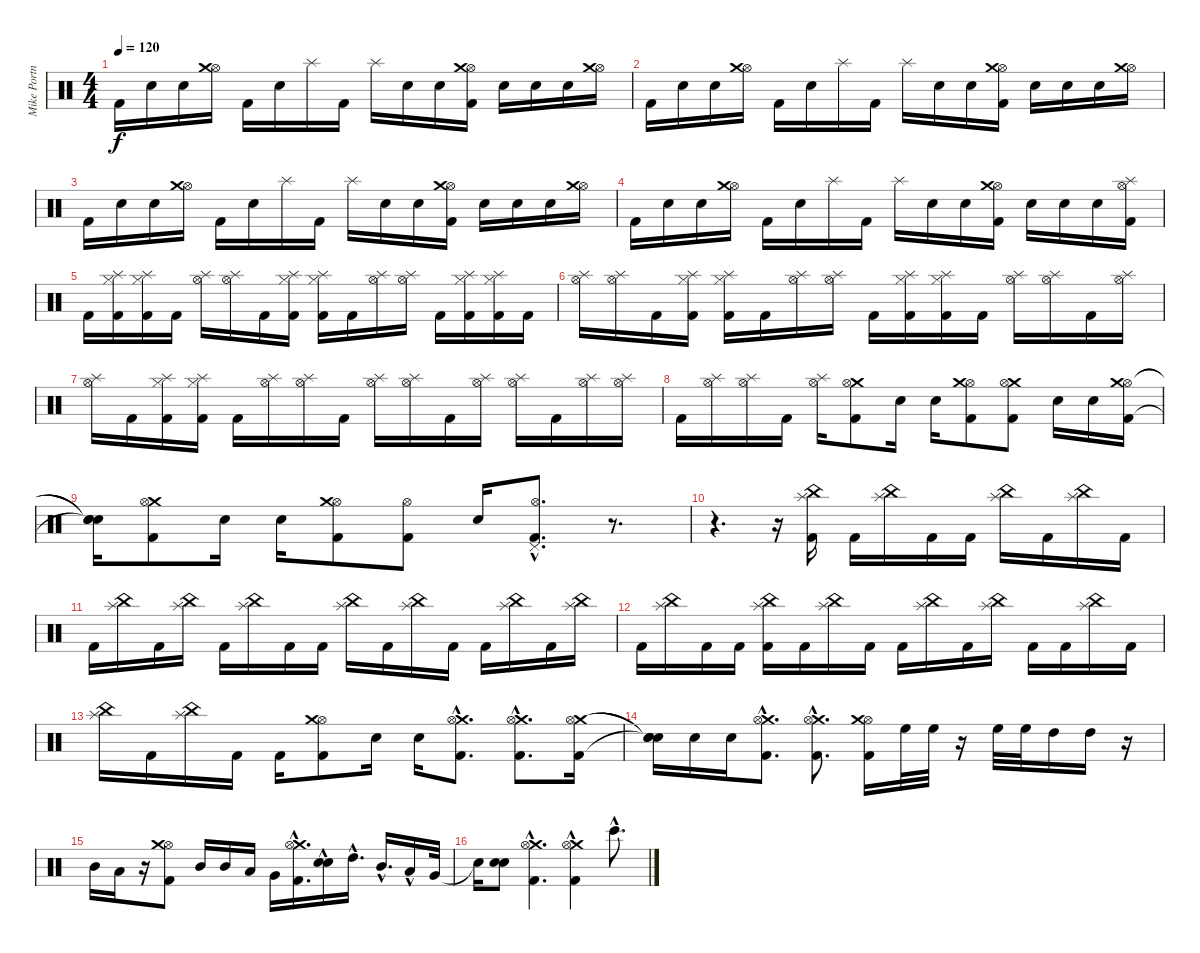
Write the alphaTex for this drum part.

\track ("Mike Portnoy - Batterie" "Mike Portn") {instrument percussion}
\staff {score}
\articulation defaults
\ts (4 4)
\tempo 120
\clef neutral
\ks c "Kick (hit) 2".16{dy f} "Electric Snare (hit)".16 "Electric Snare (hit)".16
("Hi-Hat (open)" "Crash medium (hit)").16 "Kick (hit) 2".16 "Electric Snare (hit)".16 "Splash (hit)".16 "Kick (hit) 2".16 "Splash (hit)".16 "Electric Snare (hit)".16 "Electric Snare (hit)".16 ("Kick (hit) 2" "Hi-Hat (open)" "Crash medium (hit)").16 "Electric Snare (hit)".16 "Electric Snare (hit)".16 "Electric Snare (hit)".16 ("Hi-Hat (open)" "Crash medium (hit)").16 |
"Kick (hit) 2".16 "Electric Snare (hit)".16 "Electric Snare (hit)".16 ("Hi-Hat (open)" "Crash medium (hit)").16 "Kick (hit) 2".16 "Electric Snare (hit)".16 "Splash (hit)".16 "Kick (hit) 2".16 "Splash (hit)".16 "Electric Snare (hit)".16 "Electric Snare (hit)".16 ("Kick (hit) 2" "Hi-Hat (open)" "Crash medium (hit)").16 "Electric Snare (hit)".16 "Electric Snare (hit)".16 "Electric Snare (hit)".16 ("Hi-Hat (open)" "Crash medium (hit)").16 |
"Kick (hit) 2".16 "Electric Snare (hit)".16 "Electric Snare (hit)".16 ("Hi-Hat (open)" "Crash medium (hit)").16 "Kick (hit) 2".16 "Electric Snare (hit)".16 "Splash (hit)".16 "Kick (hit) 2".16 "Splash (hit)".16 "Electric Snare (hit)".16 "Electric Snare (hit)".16 ("Kick (hit) 2" "Hi-Hat (open)" "Crash medium (hit)").16 "Electric Snare (hit)".16 "Electric Snare (hit)".16 "Electric Snare (hit)".16 ("Hi-Hat (open)" "Crash medium (hit)").16 |
"Kick (hit) 2".16 "Electric Snare (hit)".16 "Electric Snare (hit)".16 ("Hi-Hat (open)" "Crash medium (hit)").16 "Kick (hit) 2".16 "Electric Snare (hit)".16 "Splash (hit)".16 "Kick (hit) 2".16 "Splash (hit)".16 "Electric Snare (hit)".16 "Electric Snare (hit)".16 ("Kick (hit) 2" "Hi-Hat (open)" "Crash medium (hit)").16 "Electric Snare (hit)".16 "Electric Snare (hit)".16 "Electric Snare (hit)".16 ("Kick (hit) 2" "Hi-Hat (open)" "Splash (hit)").16 |
"Kick (hit) 2".16 ("Kick (hit) 2" "Hi-Hat (closed)" "Splash (hit)").16 ("Kick (hit) 2" "Hi-Hat (closed)" "Splash (hit)").16 "Kick (hit) 2".16 ("Hi-Hat (open)" "Splash (hit)").16 ("Hi-Hat (open)" "Splash (hit)").16 "Kick (hit) 2".16 ("Kick (hit) 2" "Hi-Hat (closed)" "Splash (hit)").16 ("Kick (hit) 2" "Hi-Hat (closed)" "Splash (hit)").16 "Kick (hit) 2".16 ("Hi-Hat (open)" "Splash (hit)").16 ("Hi-Hat (open)" "Splash (hit)").16 "Kick (hit) 2".16 ("Kick (hit) 2" "Hi-Hat (closed)" "Splash (hit)").16 ("Kick (hit) 2" "Hi-Hat (closed)" "Splash (hit)").16 "Kick (hit) 2".16 |
("Hi-Hat (open)" "Splash (hit)").16 ("Hi-Hat (open)" "Splash (hit)").16 "Kick (hit) 2".16 ("Kick (hit) 2" "Hi-Hat (closed)" "Splash (hit)").16 ("Kick (hit) 2" "Hi-Hat (closed)" "Splash (hit)").16 "Kick (hit) 2".16 ("Hi-Hat (open)" "Splash (hit)").16 ("Hi-Hat (open)" "Splash (hit)").16 "Kick (hit) 2".16 ("Kick (hit) 2" "Hi-Hat (closed)" "Splash (hit)").16 ("Kick (hit) 2" "Hi-Hat (closed)" "Splash (hit)").16 "Kick (hit) 2".16 ("Hi-Hat (open)" "Splash (hit)").16 ("Hi-Hat (open)" "Splash (hit)").16 "Kick (hit) 2".16 ("Hi-Hat (open)" "Splash (hit)").16 |
("Hi-Hat (open)" "Splash (hit)").16 "Kick (hit) 2".16 ("Kick (hit) 2" "Hi-Hat (closed)" "Splash (hit)").16 ("Kick (hit) 2" "Hi-Hat (closed)" "Splash (hit)").16 "Kick (hit) 2".16 ("Hi-Hat (open)" "Splash (hit)").16 ("Hi-Hat (open)" "Splash (hit)").16 "Kick (hit) 2".16 ("Hi-Hat (open)" "Splash (hit)").16 ("Hi-Hat (open)" "Splash (hit)").16 "Kick (hit) 2".16 ("Hi-Hat (open)" "Splash (hit)").16 ("Hi-Hat (open)" "Splash (hit)").16 "Kick (hit) 2".16 ("Hi-Hat (open)" "Splash (hit)").16 ("Hi-Hat (open)" "Splash (hit)").16 |
"Kick (hit) 2".16 ("Hi-Hat (open)" "Splash (hit)").16 ("Hi-Hat (open)" "Splash (hit)").16 "Kick (hit) 2".16 ("Hi-Hat (open)" "Splash (hit)").16 ("Crash medium (hit)" "Hi-Hat (open)" "Kick (hit) 2").8 "Electric Snare (hit)".16 "Electric Snare (hit)".16 ("Kick (hit) 2" "Hi-Hat (open)" "Crash medium (hit)").8 ("Crash medium (hit)" "Hi-Hat (open)" "Kick (hit) 2").8 "Electric Snare (hit)".16 "Electric Snare (hit)".16 ("Kick (hit) 2" "Hi-Hat (open)" "Crash medium (hit)").16 |
("Snare (hit)"{t} "Snare (hit)"{t} "Snare (hit)"{t}).16 ("Crash medium (hit)" "Hi-Hat (open)" "Kick (hit) 2").8 "Electric Snare (hit)".16 "Electric Snare (hit)".16 ("Kick (hit) 2" "Hi-Hat (open)" "Crash medium (hit)").8 ("Hi-Hat (open)" "Kick (hit) 2").8 "Electric Snare (hit)".16 ("Hi-Hat (open)"{hac} "Pedal Hi-Hat (hit)"{hac} "Kick (hit) 2"{hac}).8{d} r.8{d} |
r.4{d} r.16 ("Splash (hit)" "China (hit)" "Kick (hit) 2").16 "Kick (hit) 2".16 ("Splash (hit)" "China (hit)").16 "Kick (hit) 2".16 "Kick (hit) 2".16 ("Splash (hit)" "China (hit)").16 "Kick (hit) 2".16 ("China (hit)" "Splash (hit)").16 "Kick (hit) 2".16 |
"Kick (hit) 2".16 ("China (hit)" "Splash (hit)").16 "Kick (hit) 2".16 ("China (hit)" "Splash (hit)").16 "Kick (hit) 2".16 ("China (hit)" "Splash (hit)").16 "Kick (hit) 2".16 "Kick (hit) 2".16 ("Splash (hit)" "China (hit)").16 "Kick (hit) 2".16 ("China (hit)" "Splash (hit)").16 "Kick (hit) 2".16 "Kick (hit) 2".16 ("China (hit)" "Splash (hit)").16 "Kick (hit) 2".16 ("China (hit)" "Splash (hit)").16 |
"Kick (hit) 2".16 ("China (hit)" "Splash (hit)").16 "Kick (hit) 2".16 "Kick (hit) 2".16 ("Splash (hit)" "China (hit)" "Kick (hit) 2").16 "Kick (hit) 2".16 ("Splash (hit)" "China (hit)").16 "Kick (hit) 2".16 "Kick (hit) 2".16 ("Splash (hit)" "China (hit)").16 "Kick (hit) 2".16 ("China (hit)" "Splash (hit)").16 "Kick (hit) 2".16 "Kick (hit) 2".16 ("China (hit)" "Splash (hit)").16 "Kick (hit) 2".16 |
("China (hit)" "Splash (hit)").16 "Kick (hit) 2".16 ("China (hit)" "Splash (hit)").16 "Kick (hit) 2".16 "Kick (hit) 2".16 ("Hi-Hat (open)" "Crash medium (hit)" "Kick (hit) 2").8 "Electric Snare (hit)".16 "Electric Snare (hit)".16 ("Crash medium (hit)"{hac} "Hi-Hat (open)"{hac} "Kick (hit) 2"{hac}).8{d} ("Crash medium (hit)"{hac} "Hi-Hat (open)"{hac} "Kick (hit) 2"{hac}).8{d} ("Crash medium (hit)" "Hi-Hat (open)" "Kick (hit) 2").16 |
("Snare (hit)"{t} "Snare (hit)"{t} "Snare (hit)"{t}).16 "Electric Snare (hit)".16 "Electric Snare (hit)".16 ("Crash medium (hit)"{hac} "Hi-Hat (open)"{hac} "Kick (hit) 2"{hac}).8{d} ("Crash medium (hit)"{hac} "Hi-Hat (open)"{hac} "Kick (hit) 2"{hac}).8{d} ("Hi-Hat (open)" "Crash medium (hit)" "Kick (hit) 2").16 "High Floor Tom (hit)".32 "High Floor Tom (hit)".32 r.16 "High Floor Tom (hit)".32 "High Floor Tom (hit)".32 "High Tom (hit)".16 "High Tom (hit)".16 r.16 |
"Mid Tom (hit)".16 "Low Tom (hit)".16 r.16 ("Hi-Hat (open)" "Crash medium (hit)" "Kick (hit) 2").8 "Mid Tom (hit)".16 "Mid Tom (hit)".16 "Low Tom (hit)".16 "Very Low Tom (hit)".16 ("Crash medium (hit)"{hac} "Hi-Hat (open)"{hac} "Kick (hit) 2"{hac}).16{d} ("Snare (hit) 2"{hac} "Electric Snare (hit)"{hac}).16 "High Tom (hit)"{hac}.16{d} "Mid Tom (hit)"{hac}.16{d} "Low Tom (hit)"{hac}.16 "Very Low Tom (hit)".32 |
"Snare (hit)"{t}.16 ("Snare (hit) 2" "Electric Snare (hit)").8 ("Crash medium (hit)"{hac} "Hi-Hat (open)"{hac} "Kick (hit) 2"{hac}).4{d} ("Crash medium (hit)"{hac} "Hi-Hat (open)"{hac} "Kick (hit) 2"{hac}).4 "Bongo High (hit)"{hac}.8{d}
